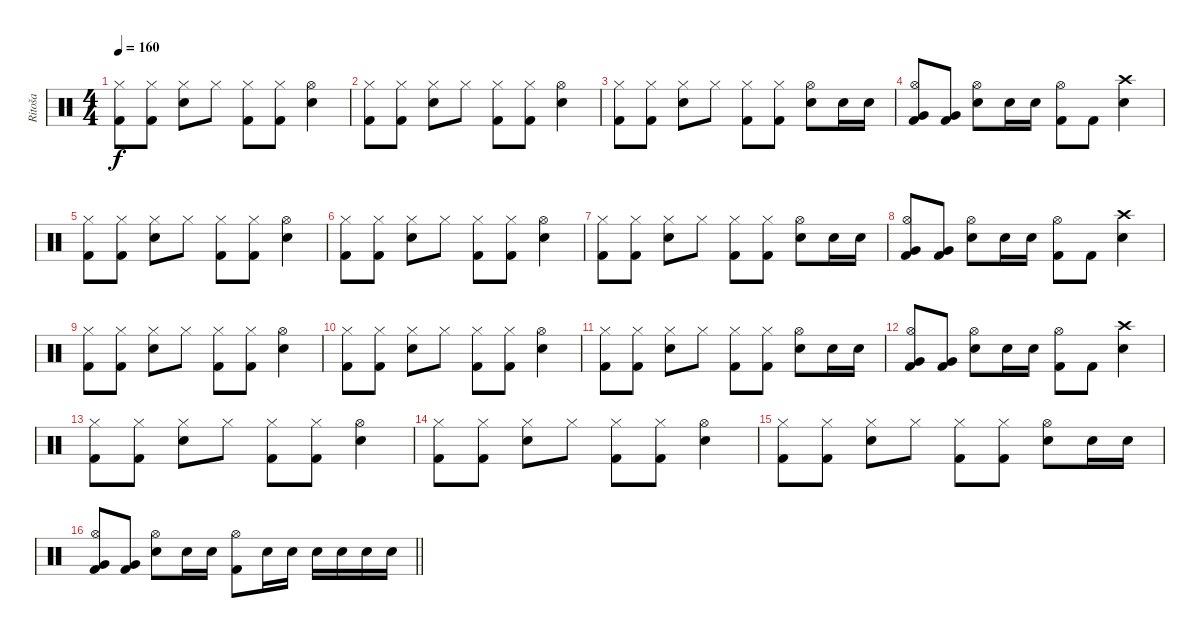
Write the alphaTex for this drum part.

\track ("Ritoša" "Ritoša") {instrument percussion}
\staff {score}
\articulation defaults
\ts (4 4)
\tempo 160
\clef neutral
\ks c
("Hi-Hat (closed)" "Kick (hit) 2").8{dy f} ("Hi-Hat (closed)" "Kick (hit) 2").8 ("Hi-Hat (closed)" "Electric Snare (hit)").8 "Hi-Hat (closed)".8 ("Hi-Hat (closed)" "Kick (hit) 2").8 ("Hi-Hat (closed)" "Kick (hit) 2").8 ("Hi-Hat (open)" "Electric Snare (hit)").4 |
("Hi-Hat (closed)" "Kick (hit) 2").8 ("Hi-Hat (closed)" "Kick (hit) 2").8 ("Hi-Hat (closed)" "Electric Snare (hit)").8 "Hi-Hat (closed)".8 ("Hi-Hat (closed)" "Kick (hit) 2").8 ("Hi-Hat (closed)" "Kick (hit) 2").8 ("Hi-Hat (open)" "Electric Snare (hit)").4 |
("Hi-Hat (closed)" "Kick (hit) 2").8 ("Hi-Hat (closed)" "Kick (hit) 2").8 ("Hi-Hat (closed)" "Electric Snare (hit)").8 "Hi-Hat (closed)".8 ("Hi-Hat (closed)" "Kick (hit) 2").8 ("Hi-Hat (closed)" "Kick (hit) 2").8 ("Hi-Hat (open)" "Electric Snare (hit)").8 "Electric Snare (hit)".16 "Electric Snare (hit)".16 |
("Hi-Hat (open)" "Very Low Tom (hit)" "Kick (hit) 2").8 ("Very Low Tom (hit)" "Kick (hit) 2").8 ("Hi-Hat (open)" "Electric Snare (hit)").8 "Electric Snare (hit)".16 "Electric Snare (hit)".16 ("Hi-Hat (open)" "Kick (hit) 2").8 "Kick (hit) 2".8 ("Crash high (hit)" "Electric Snare (hit)").4 |
("Hi-Hat (closed)" "Kick (hit) 2").8 ("Hi-Hat (closed)" "Kick (hit) 2").8 ("Hi-Hat (closed)" "Electric Snare (hit)").8 "Hi-Hat (closed)".8 ("Hi-Hat (closed)" "Kick (hit) 2").8 ("Hi-Hat (closed)" "Kick (hit) 2").8 ("Hi-Hat (open)" "Electric Snare (hit)").4 |
("Hi-Hat (closed)" "Kick (hit) 2").8 ("Hi-Hat (closed)" "Kick (hit) 2").8 ("Hi-Hat (closed)" "Electric Snare (hit)").8 "Hi-Hat (closed)".8 ("Hi-Hat (closed)" "Kick (hit) 2").8 ("Hi-Hat (closed)" "Kick (hit) 2").8 ("Hi-Hat (open)" "Electric Snare (hit)").4 |
("Hi-Hat (closed)" "Kick (hit) 2").8 ("Hi-Hat (closed)" "Kick (hit) 2").8 ("Hi-Hat (closed)" "Electric Snare (hit)").8 "Hi-Hat (closed)".8 ("Hi-Hat (closed)" "Kick (hit) 2").8 ("Hi-Hat (closed)" "Kick (hit) 2").8 ("Hi-Hat (open)" "Electric Snare (hit)").8 "Electric Snare (hit)".16 "Electric Snare (hit)".16 |
("Hi-Hat (open)" "Very Low Tom (hit)" "Kick (hit) 2").8 ("Very Low Tom (hit)" "Kick (hit) 2").8 ("Hi-Hat (open)" "Electric Snare (hit)").8 "Electric Snare (hit)".16 "Electric Snare (hit)".16 ("Hi-Hat (open)" "Kick (hit) 2").8 "Kick (hit) 2".8 ("Crash high (hit)" "Electric Snare (hit)").4 |
("Hi-Hat (closed)" "Kick (hit) 2").8 ("Hi-Hat (closed)" "Kick (hit) 2").8 ("Hi-Hat (closed)" "Electric Snare (hit)").8 "Hi-Hat (closed)".8 ("Hi-Hat (closed)" "Kick (hit) 2").8 ("Hi-Hat (closed)" "Kick (hit) 2").8 ("Hi-Hat (open)" "Electric Snare (hit)").4 |
("Hi-Hat (closed)" "Kick (hit) 2").8 ("Hi-Hat (closed)" "Kick (hit) 2").8 ("Hi-Hat (closed)" "Electric Snare (hit)").8 "Hi-Hat (closed)".8 ("Hi-Hat (closed)" "Kick (hit) 2").8 ("Hi-Hat (closed)" "Kick (hit) 2").8 ("Hi-Hat (open)" "Electric Snare (hit)").4 |
("Hi-Hat (closed)" "Kick (hit) 2").8 ("Hi-Hat (closed)" "Kick (hit) 2").8 ("Hi-Hat (closed)" "Electric Snare (hit)").8 "Hi-Hat (closed)".8 ("Hi-Hat (closed)" "Kick (hit) 2").8 ("Hi-Hat (closed)" "Kick (hit) 2").8 ("Hi-Hat (open)" "Electric Snare (hit)").8 "Electric Snare (hit)".16 "Electric Snare (hit)".16 |
("Hi-Hat (open)" "Very Low Tom (hit)" "Kick (hit) 2").8 ("Very Low Tom (hit)" "Kick (hit) 2").8 ("Hi-Hat (open)" "Electric Snare (hit)").8 "Electric Snare (hit)".16 "Electric Snare (hit)".16 ("Hi-Hat (open)" "Kick (hit) 2").8 "Kick (hit) 2".8 ("Crash high (hit)" "Electric Snare (hit)").4 |
("Hi-Hat (closed)" "Kick (hit) 2").8 ("Hi-Hat (closed)" "Kick (hit) 2").8 ("Hi-Hat (closed)" "Electric Snare (hit)").8 "Hi-Hat (closed)".8 ("Hi-Hat (closed)" "Kick (hit) 2").8 ("Hi-Hat (closed)" "Kick (hit) 2").8 ("Hi-Hat (open)" "Electric Snare (hit)").4 |
("Hi-Hat (closed)" "Kick (hit) 2").8 ("Hi-Hat (closed)" "Kick (hit) 2").8 ("Hi-Hat (closed)" "Electric Snare (hit)").8 "Hi-Hat (closed)".8 ("Hi-Hat (closed)" "Kick (hit) 2").8 ("Hi-Hat (closed)" "Kick (hit) 2").8 ("Hi-Hat (open)" "Electric Snare (hit)").4 |
("Hi-Hat (closed)" "Kick (hit) 2").8 ("Hi-Hat (closed)" "Kick (hit) 2").8 ("Hi-Hat (closed)" "Electric Snare (hit)").8 "Hi-Hat (closed)".8 ("Hi-Hat (closed)" "Kick (hit) 2").8 ("Hi-Hat (closed)" "Kick (hit) 2").8 ("Hi-Hat (open)" "Electric Snare (hit)").8 "Electric Snare (hit)".16 "Electric Snare (hit)".16 |
\barLineRight lightlight
("Hi-Hat (open)" "Very Low Tom (hit)" "Kick (hit) 2").8 ("Very Low Tom (hit)" "Kick (hit) 2").8 ("Hi-Hat (open)" "Electric Snare (hit)").8 "Electric Snare (hit)".16 "Electric Snare (hit)".16 ("Hi-Hat (open)" "Kick (hit) 2").8 "Electric Snare (hit)".16 "Electric Snare (hit)".16 "Electric Snare (hit)".16 "Electric Snare (hit)".16 "Electric Snare (hit)".16 "Electric Snare (hit)".16
